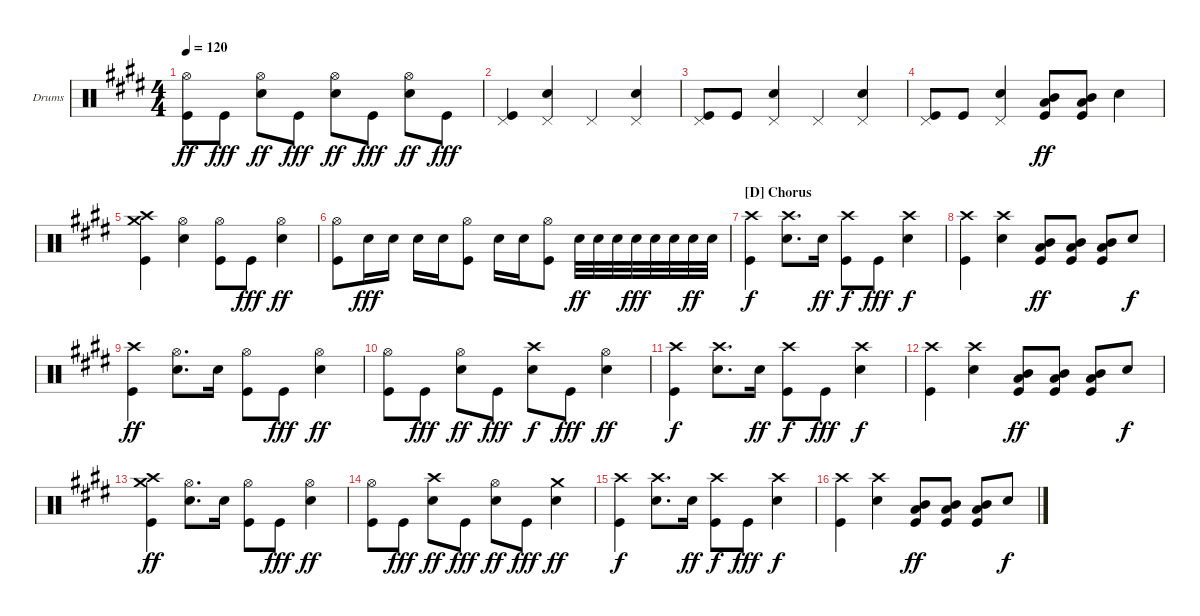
\defaultSystemsLayout 4
\bracketExtendMode groupsimilarinstruments
\firstSystemTrackNameOrientation horizontal
\otherSystemsTrackNameOrientation horizontal
\track ("Drums" "Drums") {instrument percussion}
\staff {score}
\articulation defaults
\ts (4 4)
\tempo 120
\clef neutral
\scale
1.06557
\ks e
("Hi-Hat (open)" "Kick (hit)").8{dy ff} "Kick (hit)".8{dy fff} ("Hi-Hat (open)" "Snare (hit) 2").8{dy ff} "Kick (hit)".8{dy fff} ("Hi-Hat (open)" "Snare (hit) 2").8{dy ff} "Kick (hit)".8{dy fff} ("Hi-Hat (open)" "Snare (hit) 2").8{dy ff} "Kick (hit)".8{dy fff} |
\scale
0.934426 ("Pedal Hi-Hat (hit)" "Kick (hit)").4 ("Pedal Hi-Hat (hit)" "Snare (hit) 2").4 "Pedal Hi-Hat (hit)".4 ("Pedal Hi-Hat (hit)" "Snare (hit) 2").4 |
\scale
1.06557 ("Pedal Hi-Hat (hit)" "Kick (hit)").8 "Kick (hit)".8 ("Pedal Hi-Hat (hit)" "Snare (hit) 2").4 "Pedal Hi-Hat (hit)".4 ("Pedal Hi-Hat (hit)" "Snare (hit) 2").4 |
\scale
0.934426 ("Pedal Hi-Hat (hit)" "Kick (hit)").8 "Kick (hit)".8 ("Pedal Hi-Hat (hit)" "Snare (hit) 2").4 ("Mid Tom (hit)" "Low Tom (hit)" "Kick (hit)").8{dy ff} ("Mid Tom (hit)" "Low Tom (hit)" "Kick (hit)").8 "Snare (hit) 2".4 |
\scale
1.06557 ("Crash high (hit)" "Crash medium (hit)" "Kick (hit)").4 ("Hi-Hat (open)" "Snare (hit) 2").4 ("Hi-Hat (open)" "Kick (hit)").8 "Kick (hit)".8{dy fff} ("Hi-Hat (open)" "Snare (hit) 2").4{dy ff} |
\scale
0.934426 ("Hi-Hat (open)" "Kick (hit)").8 "Snare (hit) 2".16{dy fff} "Snare (hit) 2".16 "Snare (hit) 2".16 "Snare (hit) 2".16 ("Hi-Hat (open)" "Kick (hit)").8 "Snare (hit) 2".16 "Snare (hit) 2".16 ("Hi-Hat (open)" "Kick (hit)").8 "Snare (hit) 2".32{dy ff} "Snare (hit) 2".32 "Snare (hit) 2".32 "Snare (hit) 2".32{dy fff} "Snare (hit) 2".32 "Snare (hit) 2".32 "Snare (hit) 2".32{dy ff} "Snare (hit) 2".32 |
\section ("D" "Chorus")
\scale
1.06557 ("Crash high (hit)" "Kick (hit)").4{dy f} ("Crash high (hit)" "Snare (hit) 2").8{d} "Snare (hit) 2".16{dy ff} ("Crash high (hit)" "Kick (hit)").8{dy f} "Kick (hit)".8{dy fff} ("Crash high (hit)" "Snare (hit) 2").4{dy f} |
\scale
0.934426 ("Crash high (hit)" "Kick (hit)").4 ("Crash high (hit)" "Snare (hit) 2").4 ("Mid Tom (hit)" "Low Tom (hit)" "Kick (hit)").8{dy ff} ("Mid Tom (hit)" "Low Tom (hit)" "Kick (hit)").8 ("Mid Tom (hit)" "Low Tom (hit)" "Kick (hit)").8 "Snare (hit) 2".8{dy f} |
\scale
1.06557 ("Crash high (hit)" "Kick (hit)").4{dy ff} ("Hi-Hat (open)" "Snare (hit) 2").8{d} "Snare (hit) 2".16 ("Hi-Hat (open)" "Kick (hit)").8 "Kick (hit)".8{dy fff} ("Hi-Hat (open)" "Snare (hit) 2").4{dy ff} |
\scale
0.934426 ("Hi-Hat (open)" "Kick (hit)").8 "Kick (hit)".8{dy fff} ("Hi-Hat (open)" "Snare (hit) 2").8{dy ff} "Kick (hit)".8{dy fff} ("Crash high (hit)" "Snare (hit) 2").8{dy f} "Kick (hit)".8{dy fff} ("Hi-Hat (open)" "Snare (hit) 2").4{dy ff} |
\scale
1.06557 ("Crash high (hit)" "Kick (hit)").4{dy f} ("Crash high (hit)" "Snare (hit) 2").8{d} "Snare (hit) 2".16{dy ff} ("Crash high (hit)" "Kick (hit)").8{dy f} "Kick (hit)".8{dy fff} ("Crash high (hit)" "Snare (hit) 2").4{dy f} |
\scale
0.934426 ("Crash high (hit)" "Kick (hit)").4 ("Crash high (hit)" "Snare (hit) 2").4 ("Mid Tom (hit)" "Low Tom (hit)" "Kick (hit)").8{dy ff} ("Mid Tom (hit)" "Low Tom (hit)" "Kick (hit)").8 ("Mid Tom (hit)" "Low Tom (hit)" "Kick (hit)").8 "Snare (hit) 2".8{dy f} |
\scale
1.06557 ("Crash high (hit)" "Crash medium (hit)" "Kick (hit)").4{dy ff} ("Hi-Hat (open)" "Snare (hit) 2").8{d} "Snare (hit) 2".16 ("Hi-Hat (open)" "Kick (hit)").8 "Kick (hit)".8{dy fff} ("Hi-Hat (open)" "Snare (hit) 2").4{dy ff} |
\scale
0.934426 ("Hi-Hat (open)" "Kick (hit)").8 "Kick (hit)".8{dy fff} ("Crash high (hit)" "Snare (hit) 2").8{dy ff} "Kick (hit)".8{dy fff} ("Hi-Hat (open)" "Snare (hit) 2").8{dy ff} "Kick (hit)".8{dy fff} ("Crash medium (hit)" "Snare (hit) 2").4{dy ff} |
\scale
1.06557 ("Crash high (hit)" "Kick (hit)").4{dy f} ("Crash high (hit)" "Snare (hit) 2").8{d} "Snare (hit) 2".16{dy ff} ("Crash high (hit)" "Kick (hit)").8{dy f} "Kick (hit)".8{dy fff} ("Crash high (hit)" "Snare (hit) 2").4{dy f} |
\scale
0.934426 ("Crash high (hit)" "Kick (hit)").4 ("Crash high (hit)" "Snare (hit) 2").4 ("Mid Tom (hit)" "Low Tom (hit)" "Kick (hit)").8{dy ff} ("Mid Tom (hit)" "Low Tom (hit)" "Kick (hit)").8 ("Mid Tom (hit)" "Low Tom (hit)" "Kick (hit)").8 "Snare (hit) 2".8{dy f}
